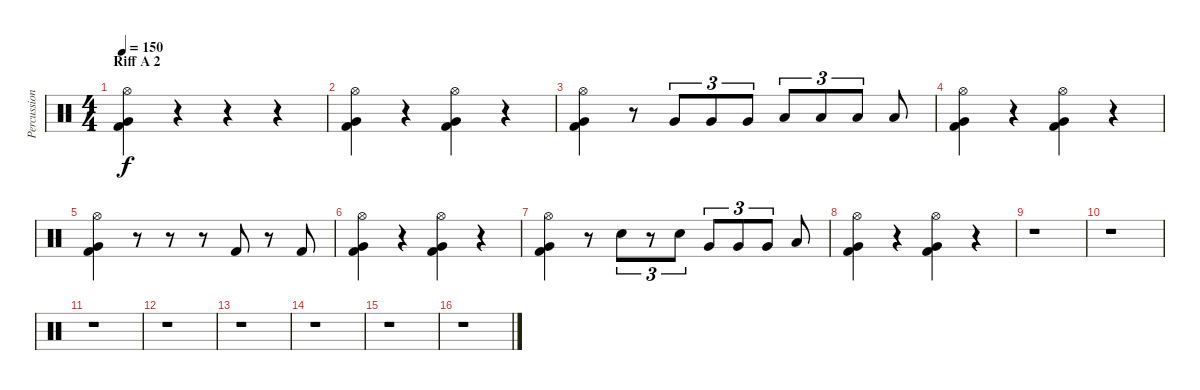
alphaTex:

\track ("Percussion" "Percussion") {instrument percussion}
\staff {score}
\articulation defaults
\ts (4 4)
\section ("" "Riff A 2")
\tempo 150
\clef neutral
\ks c
("Kick (hit) 2" "Very Low Tom (hit)" "Hi-Hat (open)").4{dy f} r.4 r.4 r.4 |
("Kick (hit) 2" "Very Low Tom (hit)" "Hi-Hat (open)").4 r.4 ("Kick (hit) 2" "Very Low Tom (hit)" "Hi-Hat (open)").4 r.4 |
("Kick (hit) 2" "Very Low Tom (hit)" "Hi-Hat (open)").4 r.8 "Very Low Tom (hit)".8{tu (3 2)} "Very Low Tom (hit)".8{tu (3 2)} "Very Low Tom (hit)".8{tu (3 2)} "Low Floor Tom (hit)".8{tu (3 2)} "Low Floor Tom (hit)".8{tu (3 2)} "Low Floor Tom (hit)".8{tu (3 2)} "Low Floor Tom (hit)".8 |
("Kick (hit) 2" "Very Low Tom (hit)" "Hi-Hat (open)").4 r.4 ("Kick (hit) 2" "Very Low Tom (hit)" "Hi-Hat (open)").4 r.4 |
("Kick (hit) 2" "Very Low Tom (hit)" "Hi-Hat (open)").4 r.8 r.8 r.8 "Kick (hit) 2".8 r.8 "Kick (hit) 2".8 |
("Kick (hit) 2" "Very Low Tom (hit)" "Hi-Hat (open)").4 r.4 ("Kick (hit) 2" "Very Low Tom (hit)" "Hi-Hat (open)").4 r.4 |
("Kick (hit) 2" "Very Low Tom (hit)" "Hi-Hat (open)").4 r.8 "Electric Snare (hit)".8{tu (3 2)} r.8{tu (3 2)} "Electric Snare (hit)".8{tu (3 2)} "Very Low Tom (hit)".8{tu (3 2)} "Very Low Tom (hit)".8{tu (3 2)} "Very Low Tom (hit)".8{tu (3 2)} "Low Floor Tom (hit)".8 |
("Kick (hit) 2" "Very Low Tom (hit)" "Hi-Hat (open)").4 r.4 ("Kick (hit) 2" "Very Low Tom (hit)" "Hi-Hat (open)").4 r.4 |
r.1 |
r.1 |
r.1 |
r.1 |
r.1 |
r.1 |
r.1 |
r.1
